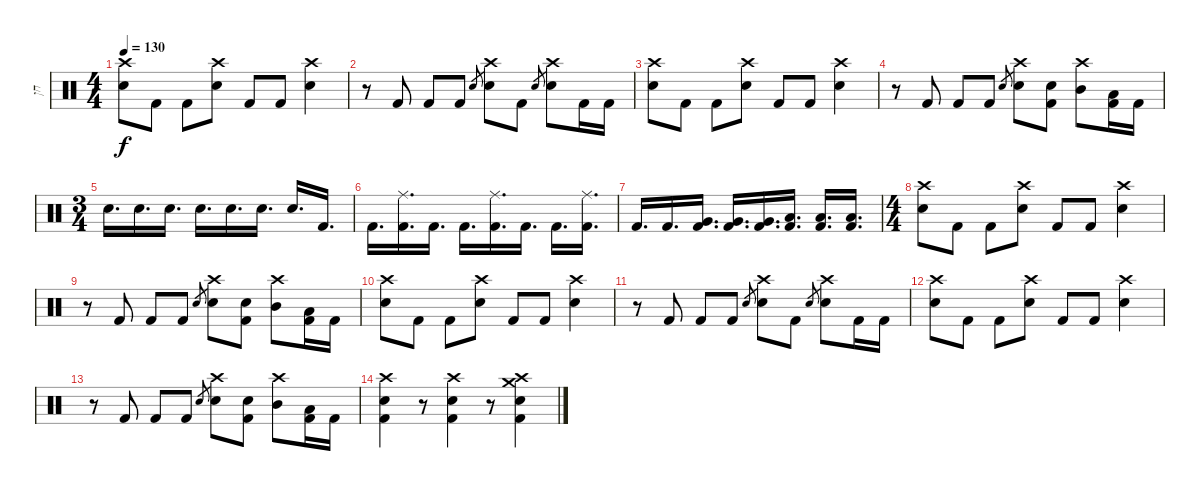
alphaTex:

\track ("חן" "חן") {instrument percussion}
\staff {score}
\articulation defaults
\ts (4 4)
\tempo 130
\clef neutral
\ks c
("Crash high (hit)" "Electric Snare (hit)").8{dy f} "Kick (hit) 2".8 "Kick (hit) 2".8 ("Crash high (hit)" "Electric Snare (hit)").8 "Kick (hit) 2".8 "Kick (hit) 2".8 ("Crash high (hit)" "Electric Snare (hit)").4 |
r.8 "Kick (hit) 2".8 "Kick (hit) 2".8 "Kick (hit) 2".8 "Electric Snare (hit)".8{gr} ("Crash high (hit)" "Electric Snare (hit)").8 "Kick (hit) 2".8 "Electric Snare (hit)".8{gr} ("Crash high (hit)" "Electric Snare (hit)").8 "Kick (hit) 2".16 "Kick (hit) 2".16 |
("Crash high (hit)" "Electric Snare (hit)").8 "Kick (hit) 2".8 "Kick (hit) 2".8 ("Crash high (hit)" "Electric Snare (hit)").8 "Kick (hit) 2".8 "Kick (hit) 2".8 ("Crash high (hit)" "Electric Snare (hit)").4 |
r.8 "Kick (hit) 2".8 "Kick (hit) 2".8 "Kick (hit) 2".8 "Electric Snare (hit)".8{gr} ("Crash high (hit)" "Electric Snare (hit)").8 ("Electric Snare (hit)" "Kick (hit) 2").8 ("Crash high (hit)" "Mid Tom (hit)").8 ("Low Tom (hit)" "Kick (hit) 2").16 "Kick (hit) 2".16 |
\ts (3 4)
"Electric Snare (hit)".16{d} "Electric Snare (hit)".16{d} "Electric Snare (hit)".16{d} "Electric Snare (hit)".16{d} "Electric Snare (hit)".16{d} "Electric Snare (hit)".16{d} "Electric Snare (hit)".16{d} "Kick (hit) 2".16{d} |
"Kick (hit) 2".16{d} ("Ride (middle)" "Kick (hit) 2").16{d} "Kick (hit) 2".16{d} "Kick (hit) 2".16{d} ("Ride (middle)" "Kick (hit) 2").16{d} "Kick (hit) 2".16{d} "Kick (hit) 2".16{d} ("Ride (middle)" "Kick (hit) 2").16{d} |
"Kick (hit) 2".16{d} "Kick (hit) 2".16{d} ("Very Low Tom (hit)" "Kick (hit) 2").16{d} ("Very Low Tom (hit)" "Kick (hit) 2").16{d} ("Very Low Tom (hit)" "Kick (hit) 2").16{d} ("Low Floor Tom (hit)" "Kick (hit) 2").16{d} ("Low Floor Tom (hit)" "Kick (hit) 2").16{d} ("Low Floor Tom (hit)" "Kick (hit) 2").16{d} |
\ts (4 4)
("Crash high (hit)" "Electric Snare (hit)").8 "Kick (hit) 2".8 "Kick (hit) 2".8 ("Crash high (hit)" "Electric Snare (hit)").8 "Kick (hit) 2".8 "Kick (hit) 2".8 ("Crash high (hit)" "Electric Snare (hit)").4 |
r.8 "Kick (hit) 2".8 "Kick (hit) 2".8 "Kick (hit) 2".8 "Electric Snare (hit)".8{gr} ("Crash high (hit)" "Electric Snare (hit)").8 ("Electric Snare (hit)" "Kick (hit) 2").8 ("Crash high (hit)" "Mid Tom (hit)").8 ("Low Tom (hit)" "Kick (hit) 2").16 "Kick (hit) 2".16 |
("Crash high (hit)" "Electric Snare (hit)").8 "Kick (hit) 2".8 "Kick (hit) 2".8 ("Crash high (hit)" "Electric Snare (hit)").8 "Kick (hit) 2".8 "Kick (hit) 2".8 ("Crash high (hit)" "Electric Snare (hit)").4 |
r.8 "Kick (hit) 2".8 "Kick (hit) 2".8 "Kick (hit) 2".8 "Electric Snare (hit)".8{gr} ("Crash high (hit)" "Electric Snare (hit)").8 "Kick (hit) 2".8 "Electric Snare (hit)".8{gr} ("Crash high (hit)" "Electric Snare (hit)").8 "Kick (hit) 2".16 "Kick (hit) 2".16 |
("Crash high (hit)" "Electric Snare (hit)").8 "Kick (hit) 2".8 "Kick (hit) 2".8 ("Crash high (hit)" "Electric Snare (hit)").8 "Kick (hit) 2".8 "Kick (hit) 2".8 ("Crash high (hit)" "Electric Snare (hit)").4 |
r.8 "Kick (hit) 2".8 "Kick (hit) 2".8 "Kick (hit) 2".8 "Electric Snare (hit)".8{gr} ("Crash high (hit)" "Electric Snare (hit)").8 ("Electric Snare (hit)" "Kick (hit) 2").8 ("Crash high (hit)" "Mid Tom (hit)").8 ("Low Tom (hit)" "Kick (hit) 2").16 "Kick (hit) 2".16 |
("Crash high (hit)" "Electric Snare (hit)" "Kick (hit) 2").4 r.8 ("Crash high (hit)" "Electric Snare (hit)" "Kick (hit) 2").4 r.8 ("Crash high (hit)" "Electric Snare (hit)" "Crash medium (hit)" "Kick (hit) 2").4
